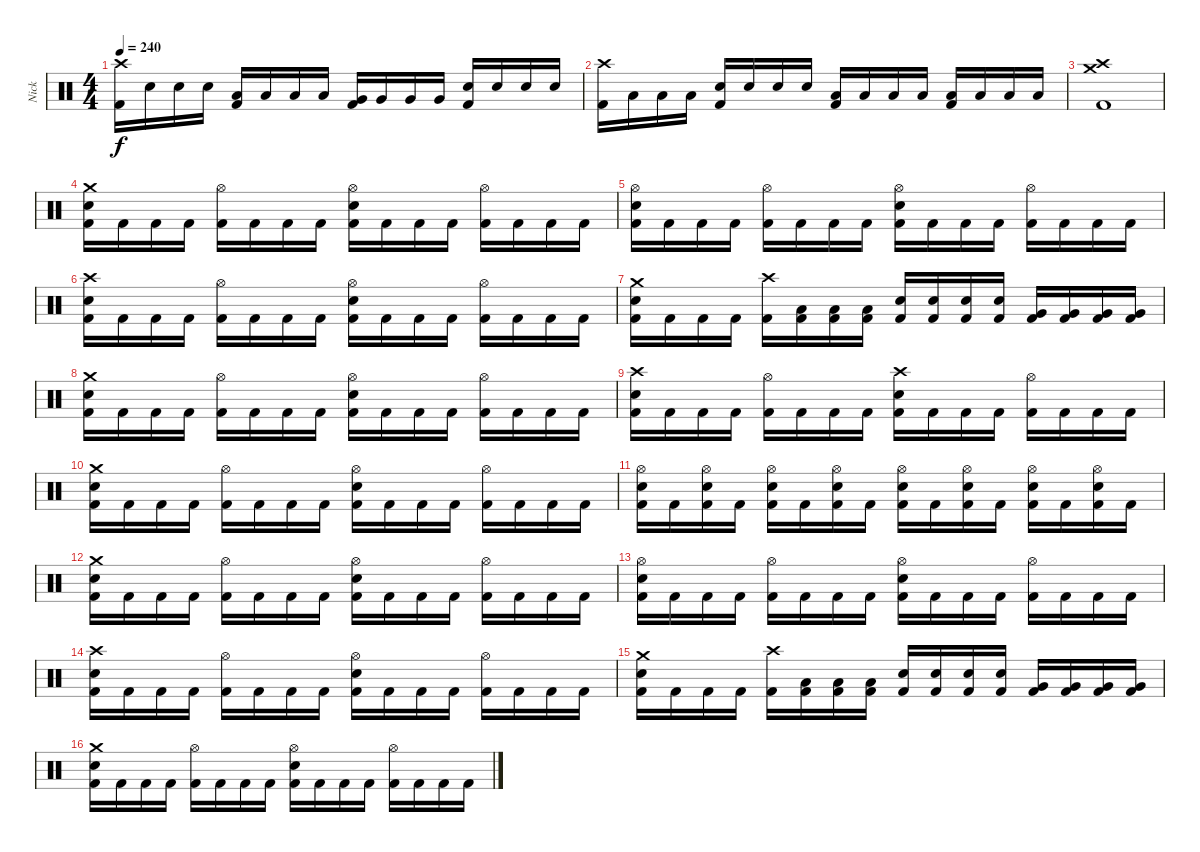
\track ("Nick" "Nick") {instrument percussion}
\staff {score}
\articulation defaults
\ts (4 4)
\tempo 240
\clef neutral
\ks c
("Crash high (hit)" "Kick (hit) 2").16{dy f} "Electric Snare (hit)".16 "Electric Snare (hit)".16 "Electric Snare (hit)".16 ("Low Tom (hit)" "Kick (hit) 2").16 "Low Tom (hit)".16 "Low Tom (hit)".16 "Low Tom (hit)".16 ("Very Low Tom (hit)" "Kick (hit) 2").16 "Very Low Tom (hit)".16 "Very Low Tom (hit)".16 "Very Low Tom (hit)".16 ("Electric Snare (hit)" "Kick (hit) 2").16 "Electric Snare (hit)".16 "Electric Snare (hit)".16 "Electric Snare (hit)".16 |
("Crash high (hit)" "Kick (hit) 2").16 "Low Tom (hit)".16 "Low Tom (hit)".16 "Low Tom (hit)".16 ("Electric Snare (hit)" "Kick (hit) 2").16 "Electric Snare (hit)".16 "Electric Snare (hit)".16 "Electric Snare (hit)".16 ("Low Tom (hit)" "Kick (hit) 2").16 "Low Tom (hit)".16 "Low Tom (hit)".16 "Low Tom (hit)".16 ("Low Tom (hit)" "Kick (hit) 2").16 "Low Tom (hit)".16 "Low Tom (hit)".16 "Low Tom (hit)".16 |
("Crash medium (hit)" "Crash high (hit)" "Kick (hit) 2").1 |
("Crash medium (hit)" "Electric Snare (hit)" "Kick (hit) 2").16 "Kick (hit) 2".16 "Kick (hit) 2".16 "Kick (hit) 2".16 ("Hi-Hat (open)" "Kick (hit) 2").16 "Kick (hit) 2".16 "Kick (hit) 2".16 "Kick (hit) 2".16 ("Hi-Hat (open)" "Electric Snare (hit)" "Kick (hit) 2").16 "Kick (hit) 2".16 "Kick (hit) 2".16 "Kick (hit) 2".16 ("Hi-Hat (open)" "Kick (hit) 2").16 "Kick (hit) 2".16 "Kick (hit) 2".16 "Kick (hit) 2".16 |
("Hi-Hat (open)" "Electric Snare (hit)" "Kick (hit) 2").16 "Kick (hit) 2".16 "Kick (hit) 2".16 "Kick (hit) 2".16 ("Hi-Hat (open)" "Kick (hit) 2").16 "Kick (hit) 2".16 "Kick (hit) 2".16 "Kick (hit) 2".16 ("Hi-Hat (open)" "Electric Snare (hit)" "Kick (hit) 2").16 "Kick (hit) 2".16 "Kick (hit) 2".16 "Kick (hit) 2".16 ("Hi-Hat (open)" "Kick (hit) 2").16 "Kick (hit) 2".16 "Kick (hit) 2".16 "Kick (hit) 2".16 |
("Crash high (hit)" "Electric Snare (hit)" "Kick (hit) 2").16 "Kick (hit) 2".16 "Kick (hit) 2".16 "Kick (hit) 2".16 ("Hi-Hat (open)" "Kick (hit) 2").16 "Kick (hit) 2".16 "Kick (hit) 2".16 "Kick (hit) 2".16 ("Hi-Hat (open)" "Electric Snare (hit)" "Kick (hit) 2").16 "Kick (hit) 2".16 "Kick (hit) 2".16 "Kick (hit) 2".16 ("Hi-Hat (open)" "Kick (hit) 2").16 "Kick (hit) 2".16 "Kick (hit) 2".16 "Kick (hit) 2".16 |
("Crash medium (hit)" "Electric Snare (hit)" "Kick (hit) 2").16 "Kick (hit) 2".16 "Kick (hit) 2".16 "Kick (hit) 2".16 ("Crash high (hit)" "Kick (hit) 2").16 ("Low Tom (hit)" "Kick (hit) 2").16 ("Low Tom (hit)" "Kick (hit) 2").16 ("Low Tom (hit)" "Kick (hit) 2").16 ("Electric Snare (hit)" "Kick (hit) 2").16 ("Electric Snare (hit)" "Kick (hit) 2").16 ("Electric Snare (hit)" "Kick (hit) 2").16 ("Electric Snare (hit)" "Kick (hit) 2").16 ("Very Low Tom (hit)" "Kick (hit) 2").16 ("Very Low Tom (hit)" "Kick (hit) 2").16 ("Very Low Tom (hit)" "Kick (hit) 2").16 ("Very Low Tom (hit)" "Kick (hit) 2").16 |
("Crash medium (hit)" "Electric Snare (hit)" "Kick (hit) 2").16 "Kick (hit) 2".16 "Kick (hit) 2".16 "Kick (hit) 2".16 ("Hi-Hat (open)" "Kick (hit) 2").16 "Kick (hit) 2".16 "Kick (hit) 2".16 "Kick (hit) 2".16 ("Hi-Hat (open)" "Electric Snare (hit)" "Kick (hit) 2").16 "Kick (hit) 2".16 "Kick (hit) 2".16 "Kick (hit) 2".16 ("Hi-Hat (open)" "Kick (hit) 2").16 "Kick (hit) 2".16 "Kick (hit) 2".16 "Kick (hit) 2".16 |
("Crash high (hit)" "Electric Snare (hit)" "Kick (hit) 2").16 "Kick (hit) 2".16 "Kick (hit) 2".16 "Kick (hit) 2".16 ("Hi-Hat (open)" "Kick (hit) 2").16 "Kick (hit) 2".16 "Kick (hit) 2".16 "Kick (hit) 2".16 ("Crash high (hit)" "Electric Snare (hit)" "Kick (hit) 2").16 "Kick (hit) 2".16 "Kick (hit) 2".16 "Kick (hit) 2".16 ("Hi-Hat (open)" "Kick (hit) 2").16 "Kick (hit) 2".16 "Kick (hit) 2".16 "Kick (hit) 2".16 |
("Crash medium (hit)" "Electric Snare (hit)" "Kick (hit) 2").16 "Kick (hit) 2".16 "Kick (hit) 2".16 "Kick (hit) 2".16 ("Hi-Hat (open)" "Kick (hit) 2").16 "Kick (hit) 2".16 "Kick (hit) 2".16 "Kick (hit) 2".16 ("Hi-Hat (open)" "Electric Snare (hit)" "Kick (hit) 2").16 "Kick (hit) 2".16 "Kick (hit) 2".16 "Kick (hit) 2".16 ("Hi-Hat (open)" "Kick (hit) 2").16 "Kick (hit) 2".16 "Kick (hit) 2".16 "Kick (hit) 2".16 |
("Hi-Hat (open)" "Electric Snare (hit)" "Kick (hit) 2").16 "Kick (hit) 2".16 ("Hi-Hat (open)" "Electric Snare (hit)" "Kick (hit) 2").16 "Kick (hit) 2".16 ("Hi-Hat (open)" "Electric Snare (hit)" "Kick (hit) 2").16 "Kick (hit) 2".16 ("Hi-Hat (open)" "Electric Snare (hit)" "Kick (hit) 2").16 "Kick (hit) 2".16 ("Hi-Hat (open)" "Electric Snare (hit)" "Kick (hit) 2").16 "Kick (hit) 2".16 ("Hi-Hat (open)" "Electric Snare (hit)" "Kick (hit) 2").16 "Kick (hit) 2".16 ("Hi-Hat (open)" "Electric Snare (hit)" "Kick (hit) 2").16 "Kick (hit) 2".16 ("Hi-Hat (open)" "Electric Snare (hit)" "Kick (hit) 2").16 "Kick (hit) 2".16 |
("Crash medium (hit)" "Electric Snare (hit)" "Kick (hit) 2").16 "Kick (hit) 2".16 "Kick (hit) 2".16 "Kick (hit) 2".16 ("Hi-Hat (open)" "Kick (hit) 2").16 "Kick (hit) 2".16 "Kick (hit) 2".16 "Kick (hit) 2".16 ("Hi-Hat (open)" "Electric Snare (hit)" "Kick (hit) 2").16 "Kick (hit) 2".16 "Kick (hit) 2".16 "Kick (hit) 2".16 ("Hi-Hat (open)" "Kick (hit) 2").16 "Kick (hit) 2".16 "Kick (hit) 2".16 "Kick (hit) 2".16 |
("Hi-Hat (open)" "Electric Snare (hit)" "Kick (hit) 2").16 "Kick (hit) 2".16 "Kick (hit) 2".16 "Kick (hit) 2".16 ("Hi-Hat (open)" "Kick (hit) 2").16 "Kick (hit) 2".16 "Kick (hit) 2".16 "Kick (hit) 2".16 ("Hi-Hat (open)" "Electric Snare (hit)" "Kick (hit) 2").16 "Kick (hit) 2".16 "Kick (hit) 2".16 "Kick (hit) 2".16 ("Hi-Hat (open)" "Kick (hit) 2").16 "Kick (hit) 2".16 "Kick (hit) 2".16 "Kick (hit) 2".16 |
("Crash high (hit)" "Electric Snare (hit)" "Kick (hit) 2").16 "Kick (hit) 2".16 "Kick (hit) 2".16 "Kick (hit) 2".16 ("Hi-Hat (open)" "Kick (hit) 2").16 "Kick (hit) 2".16 "Kick (hit) 2".16 "Kick (hit) 2".16 ("Hi-Hat (open)" "Electric Snare (hit)" "Kick (hit) 2").16 "Kick (hit) 2".16 "Kick (hit) 2".16 "Kick (hit) 2".16 ("Hi-Hat (open)" "Kick (hit) 2").16 "Kick (hit) 2".16 "Kick (hit) 2".16 "Kick (hit) 2".16 |
("Crash medium (hit)" "Electric Snare (hit)" "Kick (hit) 2").16 "Kick (hit) 2".16 "Kick (hit) 2".16 "Kick (hit) 2".16 ("Crash high (hit)" "Kick (hit) 2").16 ("Low Tom (hit)" "Kick (hit) 2").16 ("Low Tom (hit)" "Kick (hit) 2").16 ("Low Tom (hit)" "Kick (hit) 2").16 ("Electric Snare (hit)" "Kick (hit) 2").16 ("Electric Snare (hit)" "Kick (hit) 2").16 ("Electric Snare (hit)" "Kick (hit) 2").16 ("Electric Snare (hit)" "Kick (hit) 2").16 ("Very Low Tom (hit)" "Kick (hit) 2").16 ("Very Low Tom (hit)" "Kick (hit) 2").16 ("Very Low Tom (hit)" "Kick (hit) 2").16 ("Very Low Tom (hit)" "Kick (hit) 2").16 |
("Crash medium (hit)" "Electric Snare (hit)" "Kick (hit) 2").16 "Kick (hit) 2".16 "Kick (hit) 2".16 "Kick (hit) 2".16 ("Hi-Hat (open)" "Kick (hit) 2").16 "Kick (hit) 2".16 "Kick (hit) 2".16 "Kick (hit) 2".16 ("Hi-Hat (open)" "Electric Snare (hit)" "Kick (hit) 2").16 "Kick (hit) 2".16 "Kick (hit) 2".16 "Kick (hit) 2".16 ("Hi-Hat (open)" "Kick (hit) 2").16 "Kick (hit) 2".16 "Kick (hit) 2".16 "Kick (hit) 2".16
